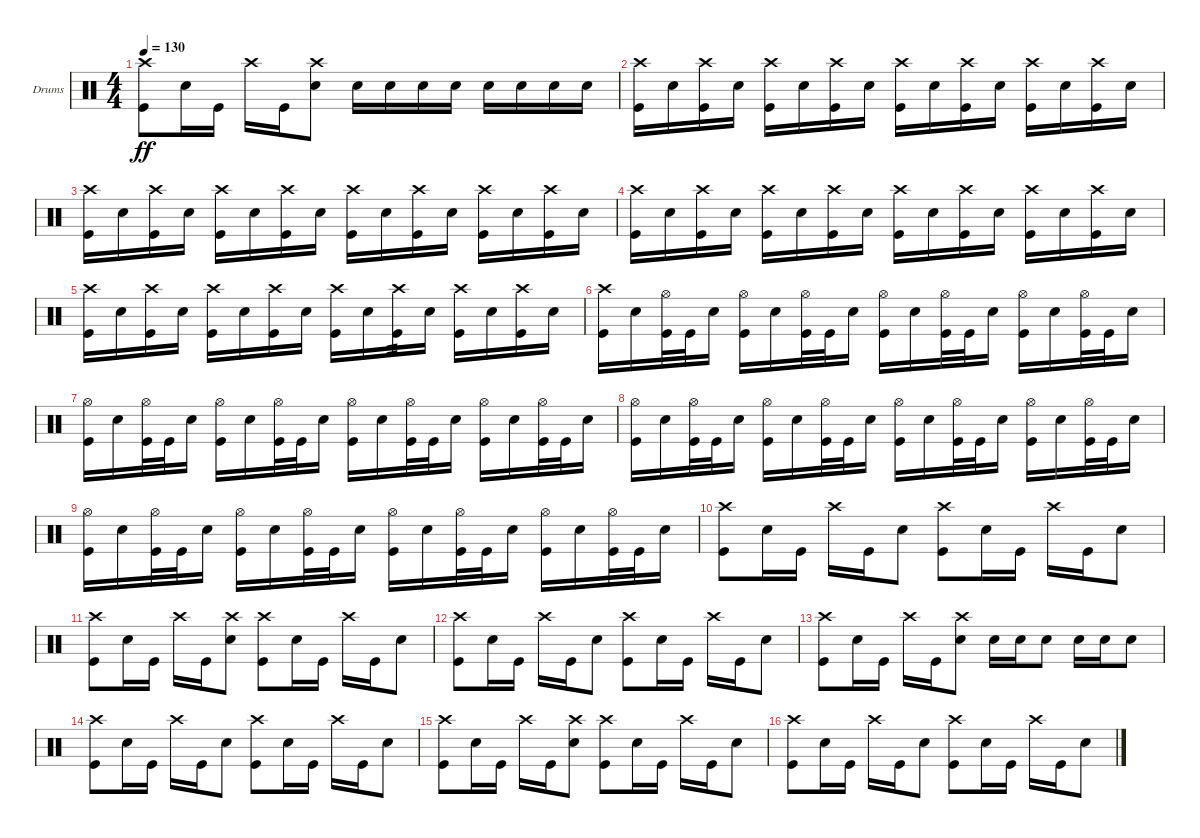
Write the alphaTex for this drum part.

\defaultSystemsLayout 4
\bracketExtendMode groupsimilarinstruments
\firstSystemTrackNameOrientation horizontal
\otherSystemsTrackNameOrientation horizontal
\track ("Drumkit" "Drums") {instrument percussion}
\staff {score}
\articulation defaults
\ts (4 4)
\tempo 130
\clef neutral
\scale
0.333333
\ks c
("Kick (hit)" "Crash high (hit)").8{dy ff} "Snare (hit) 2".16 "Kick (hit)".16 "Crash high (hit)".16 "Kick (hit)".16 ("Snare (hit) 2" "Crash high (hit)").8 "Snare (hit) 2".16 "Snare (hit) 2".16 "Snare (hit) 2".16 "Snare (hit) 2".16 "Snare (hit) 2".16 "Snare (hit) 2".16 "Snare (hit) 2".16 "Snare (hit) 2".16 |
\scale
0.333333 ("Kick (hit)" "Crash high (hit)").16 "Snare (hit) 2".16 ("Kick (hit)" "Crash high (hit)").16 "Snare (hit) 2".16 ("Kick (hit)" "Crash high (hit)").16 "Snare (hit) 2".16 ("Kick (hit)" "Crash high (hit)").16 "Snare (hit) 2".16 ("Kick (hit)" "Crash high (hit)").16 "Snare (hit) 2".16 ("Kick (hit)" "Crash high (hit)").16 "Snare (hit) 2".16 ("Kick (hit)" "Crash high (hit)").16 "Snare (hit) 2".16 ("Kick (hit)" "Crash high (hit)").16 "Snare (hit) 2".16 |
("Kick (hit)" "Crash high (hit)").16 "Snare (hit) 2".16 ("Kick (hit)" "Crash high (hit)").16 "Snare (hit) 2".16 ("Kick (hit)" "Crash high (hit)").16 "Snare (hit) 2".16 ("Kick (hit)" "Crash high (hit)").16 "Snare (hit) 2".16 ("Kick (hit)" "Crash high (hit)").16 "Snare (hit) 2".16 ("Kick (hit)" "Crash high (hit)").16 "Snare (hit) 2".16 ("Kick (hit)" "Crash high (hit)").16 "Snare (hit) 2".16 ("Kick (hit)" "Crash high (hit)").16 "Snare (hit) 2".16 |
("Kick (hit)" "Crash high (hit)").16 "Snare (hit) 2".16 ("Kick (hit)" "Crash high (hit)").16 "Snare (hit) 2".16 ("Kick (hit)" "Crash high (hit)").16 "Snare (hit) 2".16 ("Kick (hit)" "Crash high (hit)").16 "Snare (hit) 2".16 ("Kick (hit)" "Crash high (hit)").16 "Snare (hit) 2".16 ("Kick (hit)" "Crash high (hit)").16 "Snare (hit) 2".16 ("Kick (hit)" "Crash high (hit)").16 "Snare (hit) 2".16 ("Kick (hit)" "Crash high (hit)").16 "Snare (hit) 2".16 |
("Kick (hit)" "Crash high (hit)").16 "Snare (hit) 2".16 ("Kick (hit)" "Crash high (hit)").16 "Snare (hit) 2".16 ("Kick (hit)" "Crash high (hit)").16 "Snare (hit) 2".16 ("Kick (hit)" "Crash high (hit)").16 "Snare (hit) 2".16 ("Kick (hit)" "Crash high (hit)").16 "Snare (hit) 2".16 ("Kick (hit)" "Crash high (hit)").16{tp 2} "Snare (hit) 2".16 ("Kick (hit)" "Crash high (hit)").16 "Snare (hit) 2".16 ("Kick (hit)" "Crash high (hit)").16 "Snare (hit) 2".16 |
("Kick (hit)" "Crash high (hit)").16 "Snare (hit) 2".16 ("Kick (hit)" "Hi-Hat (open)").32 "Kick (hit)".32 "Snare (hit) 2".16 ("Kick (hit)" "Hi-Hat (open)").16 "Snare (hit) 2".16 ("Kick (hit)" "Hi-Hat (open)").32 "Kick (hit)".32 "Snare (hit) 2".16 ("Kick (hit)" "Hi-Hat (open)").16 "Snare (hit) 2".16 ("Kick (hit)" "Hi-Hat (open)").32 "Kick (hit)".32 "Snare (hit) 2".16 ("Kick (hit)" "Hi-Hat (open)").16 "Snare (hit) 2".16 ("Kick (hit)" "Hi-Hat (open)").32 "Kick (hit)".32 "Snare (hit) 2".16 |
("Kick (hit)" "Hi-Hat (open)").16 "Snare (hit) 2".16 ("Kick (hit)" "Hi-Hat (open)").32 "Kick (hit)".32 "Snare (hit) 2".16 ("Kick (hit)" "Hi-Hat (open)").16 "Snare (hit) 2".16 ("Kick (hit)" "Hi-Hat (open)").32 "Kick (hit)".32 "Snare (hit) 2".16 ("Kick (hit)" "Hi-Hat (open)").16 "Snare (hit) 2".16 ("Kick (hit)" "Hi-Hat (open)").32 "Kick (hit)".32 "Snare (hit) 2".16 ("Kick (hit)" "Hi-Hat (open)").16 "Snare (hit) 2".16 ("Kick (hit)" "Hi-Hat (open)").32 "Kick (hit)".32 "Snare (hit) 2".16 |
("Kick (hit)" "Hi-Hat (open)").16 "Snare (hit) 2".16 ("Kick (hit)" "Hi-Hat (open)").32 "Kick (hit)".32 "Snare (hit) 2".16 ("Kick (hit)" "Hi-Hat (open)").16 "Snare (hit) 2".16 ("Kick (hit)" "Hi-Hat (open)").32 "Kick (hit)".32 "Snare (hit) 2".16 ("Kick (hit)" "Hi-Hat (open)").16 "Snare (hit) 2".16 ("Kick (hit)" "Hi-Hat (open)").32 "Kick (hit)".32 "Snare (hit) 2".16 ("Kick (hit)" "Hi-Hat (open)").16 "Snare (hit) 2".16 ("Kick (hit)" "Hi-Hat (open)").32 "Kick (hit)".32 "Snare (hit) 2".16 |
("Kick (hit)" "Hi-Hat (open)").16 "Snare (hit) 2".16 ("Kick (hit)" "Hi-Hat (open)").32 "Kick (hit)".32 "Snare (hit) 2".16 ("Kick (hit)" "Hi-Hat (open)").16 "Snare (hit) 2".16 ("Kick (hit)" "Hi-Hat (open)").32 "Kick (hit)".32 "Snare (hit) 2".16 ("Kick (hit)" "Hi-Hat (open)").16 "Snare (hit) 2".16 ("Kick (hit)" "Hi-Hat (open)").32 "Kick (hit)".32 "Snare (hit) 2".16 ("Kick (hit)" "Hi-Hat (open)").16 "Snare (hit) 2".16 ("Kick (hit)" "Hi-Hat (open)").32 "Kick (hit)".32 "Snare (hit) 2".16 |
("Kick (hit)" "Crash high (hit)").8 "Snare (hit) 2".16 "Kick (hit)".16 "Crash high (hit)".16 "Kick (hit)".16 "Snare (hit) 2".8 ("Kick (hit)" "Crash high (hit)").8 "Snare (hit) 2".16 "Kick (hit)".16 "Crash high (hit)".16 "Kick (hit)".16 "Snare (hit) 2".8 |
("Kick (hit)" "Crash high (hit)").8 "Snare (hit) 2".16 "Kick (hit)".16 "Crash high (hit)".16 "Kick (hit)".16 ("Snare (hit) 2" "Crash high (hit)").8 ("Kick (hit)" "Crash high (hit)").8 "Snare (hit) 2".16 "Kick (hit)".16 "Crash high (hit)".16 "Kick (hit)".16 "Snare (hit) 2".8 |
("Kick (hit)" "Crash high (hit)").8 "Snare (hit) 2".16 "Kick (hit)".16 "Crash high (hit)".16 "Kick (hit)".16 "Snare (hit) 2".8 ("Kick (hit)" "Crash high (hit)").8 "Snare (hit) 2".16 "Kick (hit)".16 "Crash high (hit)".16 "Kick (hit)".16 "Snare (hit) 2".8 |
("Kick (hit)" "Crash high (hit)").8 "Snare (hit) 2".16 "Kick (hit)".16 "Crash high (hit)".16 "Kick (hit)".16 ("Snare (hit) 2" "Crash high (hit)").8 "Snare (hit) 2".16 "Snare (hit) 2".16 "Snare (hit) 2".8 "Snare (hit) 2".16 "Snare (hit) 2".16 "Snare (hit) 2".8 |
("Kick (hit)" "Crash high (hit)").8 "Snare (hit) 2".16 "Kick (hit)".16 "Crash high (hit)".16 "Kick (hit)".16 "Snare (hit) 2".8 ("Kick (hit)" "Crash high (hit)").8 "Snare (hit) 2".16 "Kick (hit)".16 "Crash high (hit)".16 "Kick (hit)".16 "Snare (hit) 2".8 |
("Kick (hit)" "Crash high (hit)").8 "Snare (hit) 2".16 "Kick (hit)".16 "Crash high (hit)".16 "Kick (hit)".16 ("Snare (hit) 2" "Crash high (hit)").8 ("Kick (hit)" "Crash high (hit)").8 "Snare (hit) 2".16 "Kick (hit)".16 "Crash high (hit)".16 "Kick (hit)".16 "Snare (hit) 2".8 |
("Kick (hit)" "Crash high (hit)").8 "Snare (hit) 2".16 "Kick (hit)".16 "Crash high (hit)".16 "Kick (hit)".16 "Snare (hit) 2".8 ("Kick (hit)" "Crash high (hit)").8 "Snare (hit) 2".16 "Kick (hit)".16 "Crash high (hit)".16 "Kick (hit)".16 "Snare (hit) 2".8
